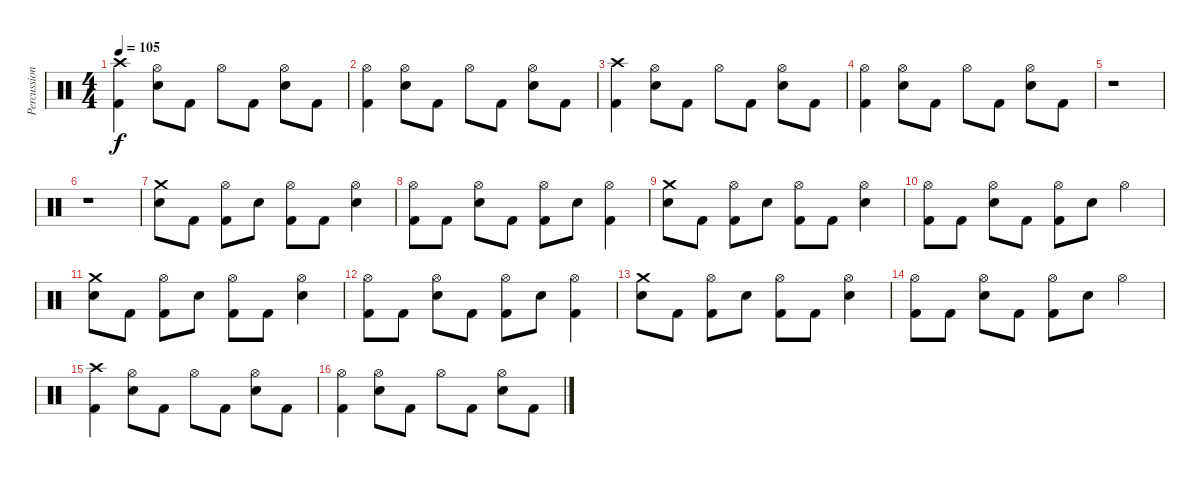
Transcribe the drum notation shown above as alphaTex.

\track ("Percussion" "Percussion") {instrument percussion}
\staff {score}
\articulation defaults
\ts (4 4)
\tempo 105
\clef neutral
\ks c
("Crash high (hit)" "Kick (hit) 2").4{dy f} ("Hi-Hat (open)" "Snare (hit) 2").8 "Kick (hit) 2".8 "Hi-Hat (open)".8 "Kick (hit) 2".8 ("Hi-Hat (open)" "Snare (hit) 2").8 "Kick (hit) 2".8 |
("Hi-Hat (open)" "Kick (hit) 2").4 ("Hi-Hat (open)" "Snare (hit) 2").8 "Kick (hit) 2".8 "Hi-Hat (open)".8 "Kick (hit) 2".8 ("Hi-Hat (open)" "Snare (hit) 2").8 "Kick (hit) 2".8 |
("Crash high (hit)" "Kick (hit) 2").4 ("Hi-Hat (open)" "Snare (hit) 2").8 "Kick (hit) 2".8 "Hi-Hat (open)".8 "Kick (hit) 2".8 ("Hi-Hat (open)" "Snare (hit) 2").8 "Kick (hit) 2".8 |
("Hi-Hat (open)" "Kick (hit) 2").4 ("Hi-Hat (open)" "Snare (hit) 2").8 "Kick (hit) 2".8 "Hi-Hat (open)".8 "Kick (hit) 2".8 ("Hi-Hat (open)" "Snare (hit) 2").8 "Kick (hit) 2".8 |
r.1 |
r.1 |
("Crash medium (hit)" "Snare (hit) 2").8 "Kick (hit) 2".8 ("Hi-Hat (open)" "Kick (hit) 2").8 "Snare (hit) 2".8 ("Hi-Hat (open)" "Kick (hit) 2").8 "Kick (hit) 2".8 ("Hi-Hat (open)" "Snare (hit) 2").4 |
("Hi-Hat (open)" "Kick (hit) 2").8 "Kick (hit) 2".8 ("Hi-Hat (open)" "Snare (hit) 2").8 "Kick (hit) 2".8 ("Hi-Hat (open)" "Kick (hit) 2").8 "Snare (hit) 2".8 ("Hi-Hat (open)" "Kick (hit) 2").4 |
("Crash medium (hit)" "Snare (hit) 2").8 "Kick (hit) 2".8 ("Hi-Hat (open)" "Kick (hit) 2").8 "Snare (hit) 2".8 ("Hi-Hat (open)" "Kick (hit) 2").8 "Kick (hit) 2".8 ("Hi-Hat (open)" "Snare (hit) 2").4 |
("Hi-Hat (open)" "Kick (hit) 2").8 "Kick (hit) 2".8 ("Hi-Hat (open)" "Snare (hit) 2").8 "Kick (hit) 2".8 ("Hi-Hat (open)" "Kick (hit) 2").8 "Snare (hit) 2".8 "Hi-Hat (open)".4 |
("Crash medium (hit)" "Snare (hit) 2").8 "Kick (hit) 2".8 ("Hi-Hat (open)" "Kick (hit) 2").8 "Snare (hit) 2".8 ("Hi-Hat (open)" "Kick (hit) 2").8 "Kick (hit) 2".8 ("Hi-Hat (open)" "Snare (hit) 2").4 |
("Hi-Hat (open)" "Kick (hit) 2").8 "Kick (hit) 2".8 ("Hi-Hat (open)" "Snare (hit) 2").8 "Kick (hit) 2".8 ("Hi-Hat (open)" "Kick (hit) 2").8 "Snare (hit) 2".8 ("Hi-Hat (open)" "Kick (hit) 2").4 |
("Crash medium (hit)" "Snare (hit) 2").8 "Kick (hit) 2".8 ("Hi-Hat (open)" "Kick (hit) 2").8 "Snare (hit) 2".8 ("Hi-Hat (open)" "Kick (hit) 2").8 "Kick (hit) 2".8 ("Hi-Hat (open)" "Snare (hit) 2").4 |
("Hi-Hat (open)" "Kick (hit) 2").8 "Kick (hit) 2".8 ("Hi-Hat (open)" "Snare (hit) 2").8 "Kick (hit) 2".8 ("Hi-Hat (open)" "Kick (hit) 2").8 "Snare (hit) 2".8 "Hi-Hat (open)".4 |
("Crash high (hit)" "Kick (hit) 2").4 ("Hi-Hat (open)" "Snare (hit) 2").8 "Kick (hit) 2".8 "Hi-Hat (open)".8 "Kick (hit) 2".8 ("Hi-Hat (open)" "Snare (hit) 2").8 "Kick (hit) 2".8 |
("Hi-Hat (open)" "Kick (hit) 2").4 ("Hi-Hat (open)" "Snare (hit) 2").8 "Kick (hit) 2".8 "Hi-Hat (open)".8 "Kick (hit) 2".8 ("Hi-Hat (open)" "Snare (hit) 2").8 "Kick (hit) 2".8
